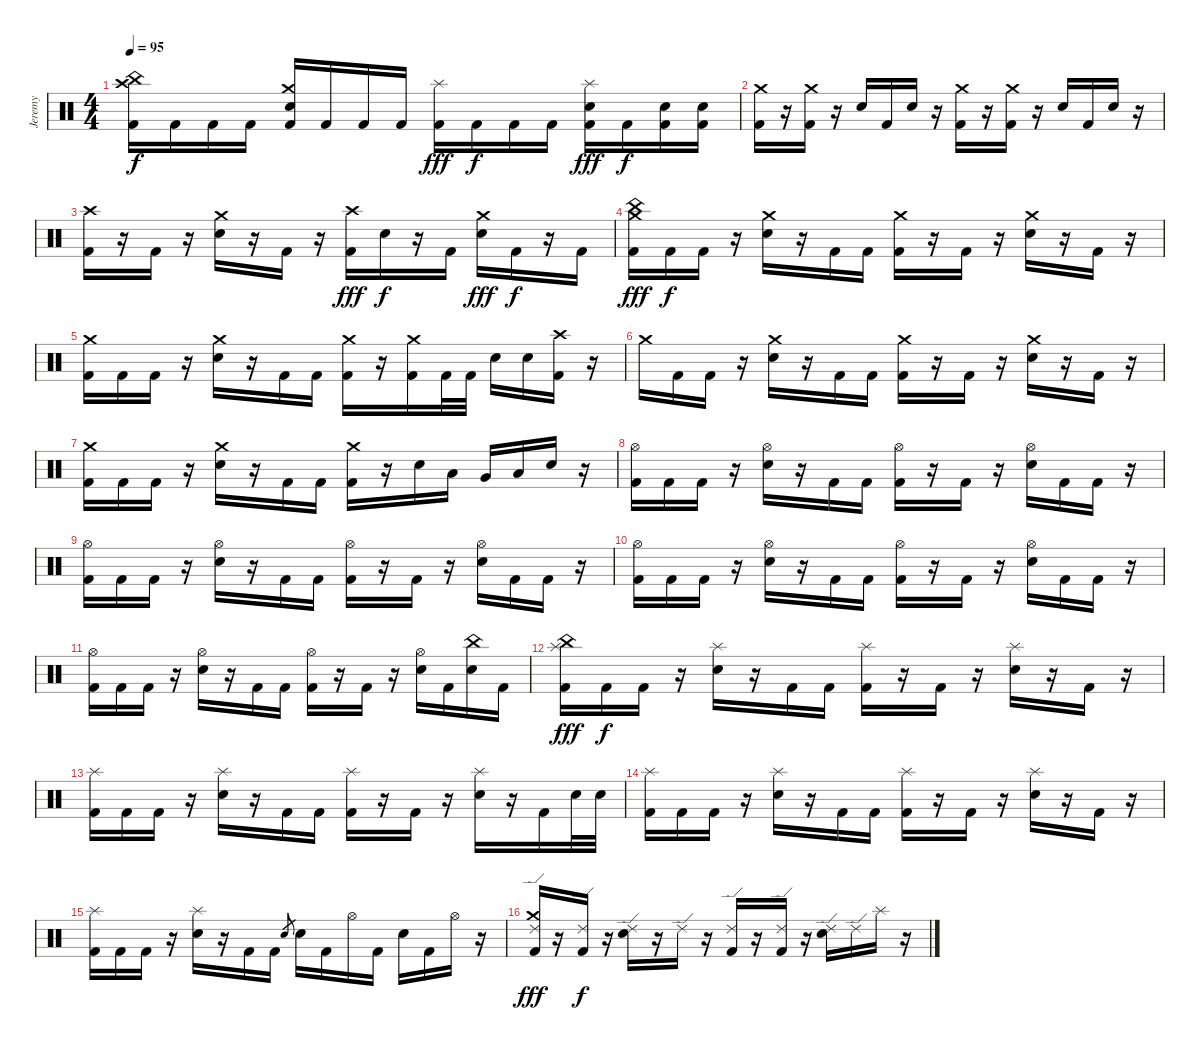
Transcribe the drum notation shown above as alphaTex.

\track ("Jeremy" "Jeremy") {instrument percussion}
\staff {score}
\articulation defaults
\ts (4 4)
\tempo 95
\clef neutral
\ks c
("Crash high (hit)" "China (hit)" "Kick (hit) 2").16{dy f} "Kick (hit) 2".16 "Kick (hit) 2".16 "Kick (hit) 2".16 ("Crash medium (hit)" "Electric Snare (hit)" "Kick (hit) 2").16 "Kick (hit) 2".16 "Kick (hit) 2".16 "Kick (hit) 2".16 ("Splash (hit)" "Kick (hit) 2").16{dy fff} "Kick (hit) 2".16{dy f} "Kick (hit) 2".16 "Kick (hit) 2".16 ("Splash (hit)" "Electric Snare (hit)" "Kick (hit) 2").16{dy fff} "Kick (hit) 2".16{dy f} ("Electric Snare (hit)" "Kick (hit) 2").16 ("Electric Snare (hit)" "Kick (hit) 2").16 |
("Crash medium (hit)" "Kick (hit) 2").16 r.16 ("Crash medium (hit)" "Kick (hit) 2").16 r.16 "Electric Snare (hit)".16 "Kick (hit) 2".16 "Electric Snare (hit)".16 r.16 ("Crash medium (hit)" "Kick (hit) 2").16 r.16 ("Crash medium (hit)" "Kick (hit) 2").16 r.16 "Electric Snare (hit)".16 "Kick (hit) 2".16 "Electric Snare (hit)".16 r.16 |
("Crash high (hit)" "Kick (hit) 2").16 r.16 "Kick (hit) 2".16 r.16 ("Crash medium (hit)" "Electric Snare (hit)").16 r.16 "Kick (hit) 2".16 r.16 ("Crash high (hit)" "Kick (hit) 2").16{dy fff} "Electric Snare (hit)".16{dy f} r.16 "Kick (hit) 2".16 ("Crash medium (hit)" "Electric Snare (hit)").16{dy fff} "Kick (hit) 2".16{dy f} r.16 "Kick (hit) 2".16 |
("China (hit)" "Crash medium (hit)" "Kick (hit) 2").16{dy fff} "Kick (hit) 2".16{dy f} "Kick (hit) 2".16 r.16 ("Crash medium (hit)" "Electric Snare (hit)").16 r.16 "Kick (hit) 2".16 "Kick (hit) 2".16 ("Crash medium (hit)" "Kick (hit) 2").16 r.16 "Kick (hit) 2".16 r.16 ("Crash medium (hit)" "Electric Snare (hit)").16 r.16 "Kick (hit) 2".16 r.16 |
("Crash medium (hit)" "Kick (hit) 2").16 "Kick (hit) 2".16 "Kick (hit) 2".16 r.16 ("Crash medium (hit)" "Electric Snare (hit)").16 r.16 "Kick (hit) 2".16 "Kick (hit) 2".16 ("Crash medium (hit)" "Kick (hit) 2").16 r.16 ("Crash medium (hit)" "Kick (hit) 2").16 "Kick (hit) 2".32 "Kick (hit) 2".32 "Electric Snare (hit)".16 "Electric Snare (hit)".16 ("Crash high (hit)" "Kick (hit) 2").16 r.16 |
"Crash medium (hit)".16 "Kick (hit) 2".16 "Kick (hit) 2".16 r.16 ("Crash medium (hit)" "Electric Snare (hit)").16 r.16 "Kick (hit) 2".16 "Kick (hit) 2".16 ("Crash medium (hit)" "Kick (hit) 2").16 r.16 "Kick (hit) 2".16 r.16 ("Crash medium (hit)" "Electric Snare (hit)").16 r.16 "Kick (hit) 2".16 r.16 |
("Crash medium (hit)" "Kick (hit) 2").16 "Kick (hit) 2".16 "Kick (hit) 2".16 r.16 ("Crash medium (hit)" "Electric Snare (hit)").16 r.16 "Kick (hit) 2".16 "Kick (hit) 2".16 ("Crash medium (hit)" "Kick (hit) 2").16 r.16 "Electric Snare (hit)".16 "Low Tom (hit)".16 "Very Low Tom (hit)".16 "Low Floor Tom (hit)".16 "Electric Snare (hit)".16 r.16 |
("Hi-Hat (open)" "Kick (hit) 2").16 "Kick (hit) 2".16 "Kick (hit) 2".16 r.16 ("Hi-Hat (open)" "Electric Snare (hit)").16 r.16 "Kick (hit) 2".16 "Kick (hit) 2".16 ("Hi-Hat (open)" "Kick (hit) 2").16 r.16 "Kick (hit) 2".16 r.16 ("Hi-Hat (open)" "Electric Snare (hit)").16 "Kick (hit) 2".16 "Kick (hit) 2".16 r.16 |
("Hi-Hat (open)" "Kick (hit) 2").16 "Kick (hit) 2".16 "Kick (hit) 2".16 r.16 ("Hi-Hat (open)" "Electric Snare (hit)").16 r.16 "Kick (hit) 2".16 "Kick (hit) 2".16 ("Hi-Hat (open)" "Kick (hit) 2").16 r.16 "Kick (hit) 2".16 r.16 ("Hi-Hat (open)" "Electric Snare (hit)").16 "Kick (hit) 2".16 "Kick (hit) 2".16 r.16 |
("Hi-Hat (open)" "Kick (hit) 2").16 "Kick (hit) 2".16 "Kick (hit) 2".16 r.16 ("Hi-Hat (open)" "Electric Snare (hit)").16 r.16 "Kick (hit) 2".16 "Kick (hit) 2".16 ("Hi-Hat (open)" "Kick (hit) 2").16 r.16 "Kick (hit) 2".16 r.16 ("Hi-Hat (open)" "Electric Snare (hit)").16 "Kick (hit) 2".16 "Kick (hit) 2".16 r.16 |
("Hi-Hat (open)" "Kick (hit) 2").16 "Kick (hit) 2".16 "Kick (hit) 2".16 r.16 ("Hi-Hat (open)" "Electric Snare (hit)").16 r.16 "Kick (hit) 2".16 "Kick (hit) 2".16 ("Hi-Hat (open)" "Kick (hit) 2").16 r.16 "Kick (hit) 2".16 r.16 ("Hi-Hat (open)" "Electric Snare (hit)").16 "Kick (hit) 2".16 ("China (hit)" "Electric Snare (hit)").16 "Kick (hit) 2".16 |
("China (hit)" "Splash (hit)" "Kick (hit) 2").16{dy fff} "Kick (hit) 2".16{dy f} "Kick (hit) 2".16 r.16 ("Splash (hit)" "Electric Snare (hit)").16 r.16 "Kick (hit) 2".16 "Kick (hit) 2".16 ("Splash (hit)" "Kick (hit) 2").16 r.16 "Kick (hit) 2".16 r.16 ("Splash (hit)" "Electric Snare (hit)").16 r.16 "Kick (hit) 2".16 r.16 |
("Splash (hit)" "Kick (hit) 2").16 "Kick (hit) 2".16 "Kick (hit) 2".16 r.16 ("Splash (hit)" "Electric Snare (hit)").16 r.16 "Kick (hit) 2".16 "Kick (hit) 2".16 ("Splash (hit)" "Kick (hit) 2").16 r.16 "Kick (hit) 2".16 r.16 ("Splash (hit)" "Electric Snare (hit)").16 r.16 "Kick (hit) 2".16 "Electric Snare (hit)".32 "Electric Snare (hit)".32 |
("Splash (hit)" "Kick (hit) 2").16 "Kick (hit) 2".16 "Kick (hit) 2".16 r.16 ("Splash (hit)" "Electric Snare (hit)").16 r.16 "Kick (hit) 2".16 "Kick (hit) 2".16 ("Splash (hit)" "Kick (hit) 2").16 r.16 "Kick (hit) 2".16 r.16 ("Splash (hit)" "Electric Snare (hit)").16 r.16 "Kick (hit) 2".16 r.16 |
("Splash (hit)" "Kick (hit) 2").16 "Kick (hit) 2".16 "Kick (hit) 2".16 r.16 ("Splash (hit)" "Electric Snare (hit)").16 r.16 "Kick (hit) 2".16 "Kick (hit) 2".16 "Electric Snare (hit)".8{gr} "Electric Snare (hit)".16 "Kick (hit) 2".16 "Hi-Hat (open)".16 "Kick (hit) 2".16 "Electric Snare (hit)".16 "Kick (hit) 2".16 "Hi-Hat (open)".16 r.16 |
("Crash medium (hit)" "Ride (edge) 2" "Kick (hit) 2").16{dy fff} r.16 ("Ride (edge) 2" "Kick (hit) 2").16{dy f} r.16 ("Ride (edge) 2" "Electric Snare (hit)").16 r.16 "Ride (edge) 2".16 r.16 ("Ride (edge) 2" "Kick (hit) 2").16 r.16 ("Ride (edge) 2" "Kick (hit) 2").16 r.16 ("Ride (edge) 2" "Electric Snare (hit)").16 "Ride (edge) 2".16 "Splash (hit)".16 r.16
